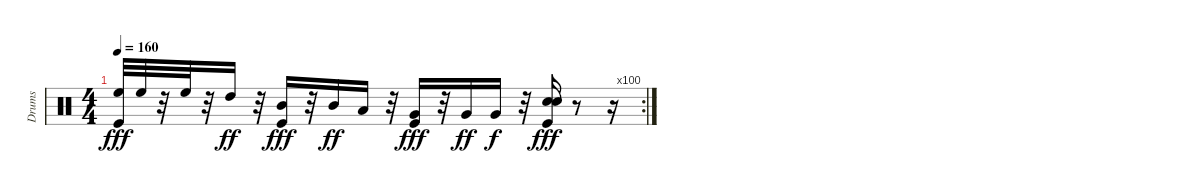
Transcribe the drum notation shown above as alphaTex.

\track ("Drums" "Drums") {instrument percussion}
\staff {score}
\articulation defaults
\rc 100
\ts (4 4)
\tempo 160
\clef neutral
\ks c
("High Floor Tom (hit)" "Kick (hit)").32{dy fff} "High Floor Tom (hit)".32 r.32 "High Floor Tom (hit)".32 r.32 "High Tom (hit)".16{dy ff} r.32 ("Kick (hit)" "Mid Tom (hit)").16{dy fff} r.32 "Mid Tom (hit)".16{dy ff} "Low Tom (hit)".16 r.32 ("Kick (hit)" "Very Low Tom (hit)").16{dy fff} r.32 "Very Low Tom (hit)".16{dy ff} "Very Low Tom (hit)".16{dy f} r.32 ("Kick (hit)" "Snare (hit) 2" "Electric Snare (hit)").16{dy fff} r.8 r.16
